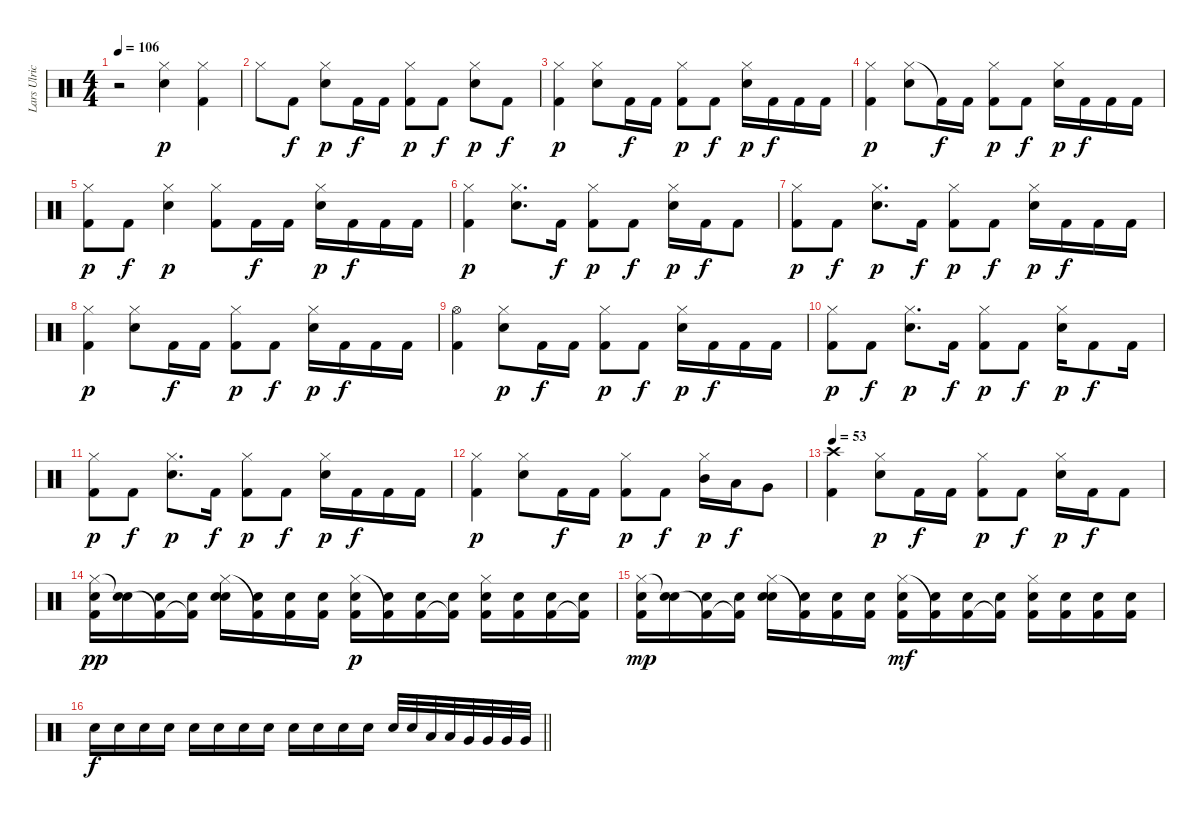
\track ("Lars Ulrich" "Lars Ulric") {instrument percussion}
\staff {score}
\articulation defaults
\ts (4 4)
\tempo 106
\tempo 53
\tempo 106
\clef neutral
\ks c
r.2{dy p volume 0} ("Hi-Hat (closed)" "Electric Snare (hit)").4{volume 2} ("Hi-Hat (closed)" "Kick (hit) 2").4 |
"Hi-Hat (closed)".8{volume 5} "Kick (hit) 2".8{dy f} ("Hi-Hat (closed)" "Electric Snare (hit)").8{dy p} "Kick (hit) 2".16{dy f} "Kick (hit) 2".16 ("Hi-Hat (closed)" "Kick (hit) 2").8{dy p} "Kick (hit) 2".8{dy f} ("Hi-Hat (closed)" "Electric Snare (hit)").8{dy p} "Kick (hit) 2".8{dy f} |
("Hi-Hat (closed)" "Kick (hit) 2").4{dy p volume 8} ("Hi-Hat (closed)" "Electric Snare (hit)").8 "Kick (hit) 2".16{dy f} "Kick (hit) 2".16 ("Hi-Hat (closed)" "Kick (hit) 2").8{dy p} "Kick (hit) 2".8{dy f} ("Hi-Hat (closed)" "Electric Snare (hit)").16{dy p} "Kick (hit) 2".16{dy f} "Kick (hit) 2".16 "Kick (hit) 2".16 |
("Hi-Hat (closed)" "Kick (hit) 2").4{dy p volume 11} ("Hi-Hat (closed)" "Electric Snare (hit)").8 "Kick (hit) 2"{t}.16{dy f} "Kick (hit) 2".16 ("Hi-Hat (closed)" "Kick (hit) 2").8{dy p} "Kick (hit) 2".8{dy f} ("Hi-Hat (closed)" "Electric Snare (hit)").16{dy p} "Kick (hit) 2".16{dy f} "Kick (hit) 2".16 "Kick (hit) 2".16 |
("Hi-Hat (closed)" "Kick (hit) 2").8{dy p volume 13} "Kick (hit) 2".8{dy f} ("Hi-Hat (closed)" "Electric Snare (hit)").4{dy p} ("Hi-Hat (closed)" "Kick (hit) 2").8 "Kick (hit) 2".16{dy f} "Kick (hit) 2".16 ("Hi-Hat (closed)" "Electric Snare (hit)").16{dy p} "Kick (hit) 2".16{dy f} "Kick (hit) 2".16 "Kick (hit) 2".16 |
("Hi-Hat (closed)" "Kick (hit) 2").4{dy p} ("Hi-Hat (closed)" "Electric Snare (hit)").8{d} "Kick (hit) 2".16{dy f} ("Hi-Hat (closed)" "Kick (hit) 2").8{dy p} "Kick (hit) 2".8{dy f} ("Hi-Hat (closed)" "Electric Snare (hit)").16{dy p} "Kick (hit) 2".16{dy f} "Kick (hit) 2".8 |
("Hi-Hat (closed)" "Kick (hit) 2").8{dy p} "Kick (hit) 2".8{dy f} ("Hi-Hat (closed)" "Electric Snare (hit)").8{d dy p} "Kick (hit) 2".16{dy f} ("Hi-Hat (closed)" "Kick (hit) 2").8{dy p} "Kick (hit) 2".8{dy f} ("Hi-Hat (closed)" "Electric Snare (hit)").16{dy p} "Kick (hit) 2".16{dy f} "Kick (hit) 2".16 "Kick (hit) 2".16 |
("Hi-Hat (closed)" "Kick (hit) 2").4{dy p} ("Hi-Hat (closed)" "Electric Snare (hit)").8 "Kick (hit) 2".16{dy f} "Kick (hit) 2".16 ("Hi-Hat (closed)" "Kick (hit) 2").8{dy p} "Kick (hit) 2".8{dy f} ("Hi-Hat (closed)" "Electric Snare (hit)").16{dy p} "Kick (hit) 2".16{dy f} "Kick (hit) 2".16 "Kick (hit) 2".16 |
("Hi-Hat (open)" "Kick (hit) 2").4 ("Hi-Hat (closed)" "Electric Snare (hit)").8{dy p} "Kick (hit) 2".16{dy f} "Kick (hit) 2".16 ("Hi-Hat (closed)" "Kick (hit) 2").8{dy p} "Kick (hit) 2".8{dy f} ("Hi-Hat (closed)" "Electric Snare (hit)").16{dy p} "Kick (hit) 2".16{dy f} "Kick (hit) 2".16 "Kick (hit) 2".16 |
("Hi-Hat (closed)" "Kick (hit) 2").8{dy p} "Kick (hit) 2".8{dy f} ("Hi-Hat (closed)" "Electric Snare (hit)").8{d dy p} "Kick (hit) 2".16{dy f} ("Hi-Hat (closed)" "Kick (hit) 2").8{dy p} "Kick (hit) 2".8{dy f} ("Hi-Hat (closed)" "Electric Snare (hit)").16{dy p} "Kick (hit) 2".8{dy f} "Kick (hit) 2".16 |
("Hi-Hat (closed)" "Kick (hit) 2").8{dy p} "Kick (hit) 2".8{dy f} ("Hi-Hat (closed)" "Electric Snare (hit)").8{d dy p} "Kick (hit) 2".16{dy f} ("Hi-Hat (closed)" "Kick (hit) 2").8{dy p} "Kick (hit) 2".8{dy f} ("Hi-Hat (closed)" "Electric Snare (hit)").16{dy p} "Kick (hit) 2".16{dy f} "Kick (hit) 2".16 "Kick (hit) 2".16 |
("Hi-Hat (closed)" "Kick (hit) 2").4{dy p} ("Hi-Hat (closed)" "Electric Snare (hit)").8 "Kick (hit) 2".16{dy f} "Kick (hit) 2".16 ("Hi-Hat (closed)" "Kick (hit) 2").8{dy p} "Kick (hit) 2".8{dy f} ("Hi-Hat (closed)" "Mid Tom (hit)").16{dy p} "Low Tom (hit)".16{dy f} "Very Low Tom (hit)".8 |
\tempo 53
("Crash high (hit)" "Kick (hit) 2").4 ("Hi-Hat (closed)" "Electric Snare (hit)").8{dy p} "Kick (hit) 2".16{dy f} "Kick (hit) 2".16 ("Hi-Hat (closed)" "Kick (hit) 2").8{dy p} "Kick (hit) 2".8{dy f} ("Hi-Hat (closed)" "Electric Snare (hit)").16{dy p} "Kick (hit) 2".16{dy f} "Kick (hit) 2".8 |
("Hi-Hat (closed)" "Kick (hit) 2" "Electric Snare (hit)").16{dy pp} ("Electric Snare (hit)"{t} "Electric Snare (hit)").16 ("Kick (hit) 2"{t} "Electric Snare (hit)").16 ("Kick (hit) 2"{t} "Electric Snare (hit)").16 ("Hi-Hat (closed)" "Electric Snare (hit)" "Electric Snare (hit)").16 ("Kick (hit) 2"{t} "Electric Snare (hit)").16 ("Kick (hit) 2" "Electric Snare (hit)").16 ("Kick (hit) 2" "Electric Snare (hit)").16 ("Hi-Hat (closed)" "Kick (hit) 2" "Electric Snare (hit)").16{dy p} ("Kick (hit) 2"{t} "Electric Snare (hit)").16 ("Kick (hit) 2" "Electric Snare (hit)").16 ("Kick (hit) 2"{t} "Electric Snare (hit)").16 ("Hi-Hat (closed)" "Kick (hit) 2" "Electric Snare (hit)").16 ("Kick (hit) 2" "Electric Snare (hit)").16 ("Kick (hit) 2" "Electric Snare (hit)").16 ("Kick (hit) 2"{t} "Electric Snare (hit)").16 |
("Hi-Hat (closed)" "Kick (hit) 2" "Electric Snare (hit)").16{dy mp} ("Electric Snare (hit)"{t} "Electric Snare (hit)").16 ("Kick (hit) 2"{t} "Electric Snare (hit)").16 ("Kick (hit) 2"{t} "Electric Snare (hit)").16 ("Hi-Hat (closed)" "Electric Snare (hit)" "Electric Snare (hit)").16 ("Kick (hit) 2"{t} "Electric Snare (hit)").16 ("Kick (hit) 2" "Electric Snare (hit)").16 ("Kick (hit) 2" "Electric Snare (hit)").16 ("Hi-Hat (closed)" "Kick (hit) 2" "Electric Snare (hit)").16{dy mf} ("Kick (hit) 2"{t} "Electric Snare (hit)").16 ("Kick (hit) 2" "Electric Snare (hit)").16 ("Kick (hit) 2"{t} "Electric Snare (hit)").16 ("Hi-Hat (closed)" "Kick (hit) 2" "Electric Snare (hit)").16 ("Kick (hit) 2" "Electric Snare (hit)").16 ("Kick (hit) 2" "Electric Snare (hit)").16 ("Kick (hit) 2" "Electric Snare (hit)").16 |
\barLineRight lightlight "Electric Snare (hit)".16{dy f} "Electric Snare (hit)".16 "Electric Snare (hit)".16 "Electric Snare (hit)".16 "Electric Snare (hit)".16 "Electric Snare (hit)".16 "Electric Snare (hit)".16 "Electric Snare (hit)".16 "Electric Snare (hit)".16 "Electric Snare (hit)".16 "Electric Snare (hit)".16 "Electric Snare (hit)".16 "Electric Snare (hit)".32 "Electric Snare (hit)".32 "Low Tom (hit)".32 "Low Tom (hit)".32 "Very Low Tom (hit)".32 "Very Low Tom (hit)".32 "Very Low Tom (hit)".32 "Very Low Tom (hit)".32
